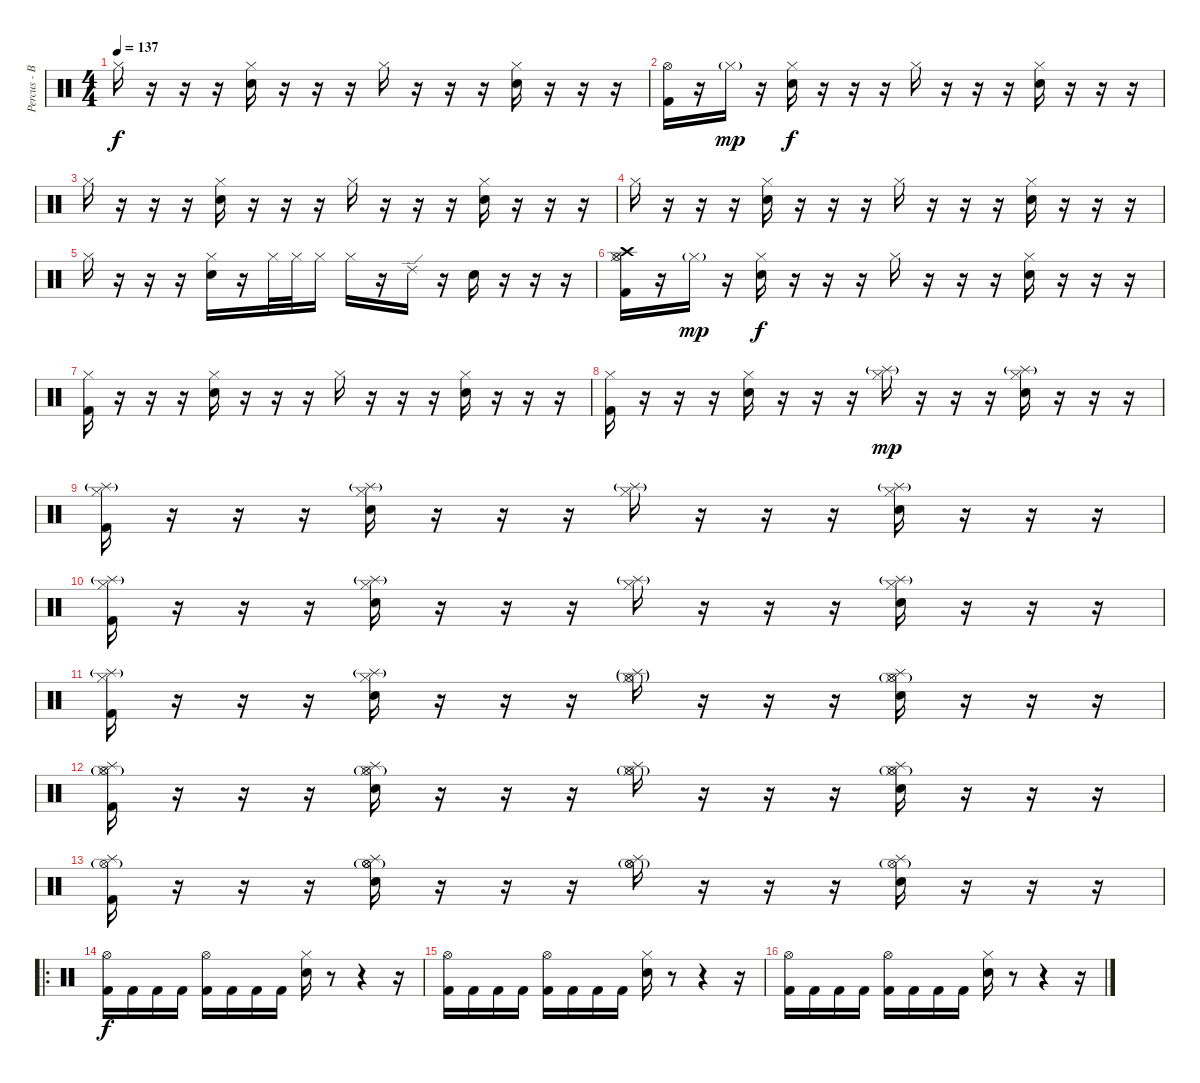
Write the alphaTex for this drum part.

\track ("Percus - Brice" "Percus - B") {instrument percussion}
\staff {score}
\articulation defaults
\ts (4 4)
\tempo 137
\clef neutral
\ks c "Hi-Hat (closed)".16{dy f}
r.16 r.16 r.16 ("Hi-Hat (closed)" "Electric Snare (hit)").16 r.16 r.16 r.16 "Hi-Hat (closed)".16 r.16 r.16 r.16 ("Hi-Hat (closed)" "Electric Snare (hit)").16 r.16 r.16 r.16 |
("Hi-Hat (open)" "Kick (hit) 2").16 r.16 "Hi-Hat (closed)"{g}.16{dy mp} r.16 ("Hi-Hat (closed)" "Electric Snare (hit)").16{dy f} r.16 r.16 r.16 "Hi-Hat (closed)".16 r.16 r.16 r.16 ("Hi-Hat (closed)" "Electric Snare (hit)").16 r.16 r.16 r.16 |
"Hi-Hat (closed)".16 r.16 r.16 r.16 ("Hi-Hat (closed)" "Electric Snare (hit)").16 r.16 r.16 r.16 "Hi-Hat (closed)".16 r.16 r.16 r.16 ("Hi-Hat (closed)" "Electric Snare (hit)").16 r.16 r.16 r.16 |
"Hi-Hat (closed)".16 r.16 r.16 r.16 ("Hi-Hat (closed)" "Electric Snare (hit)").16 r.16 r.16 r.16 "Hi-Hat (closed)".16 r.16 r.16 r.16 ("Hi-Hat (closed)" "Electric Snare (hit)").16 r.16 r.16 r.16 |
"Hi-Hat (closed)".16 r.16 r.16 r.16 ("Hi-Hat (closed)" "Electric Snare (hit)").16 r.16 "Hi-Hat (closed)".32 "Hi-Hat (closed)".32 "Hi-Hat (closed)".16 "Hi-Hat (closed)".16 r.16 "Ride (edge) 2".16 r.16 "Electric Snare (hit)".16 r.16 r.16 r.16 |
("Crash high (hit)" "Hi-Hat (open)" "Hi-Hat (closed)" "Kick (hit) 2").16 r.16 "Hi-Hat (closed)"{g}.16{dy mp} r.16 ("Hi-Hat (closed)" "Electric Snare (hit)").16{dy f} r.16 r.16 r.16 "Hi-Hat (closed)".16 r.16 r.16 r.16 ("Hi-Hat (closed)" "Electric Snare (hit)").16 r.16 r.16 r.16 |
("Hi-Hat (closed)" "Kick (hit) 2").16 r.16 r.16 r.16 ("Hi-Hat (closed)" "Electric Snare (hit)").16 r.16 r.16 r.16 "Hi-Hat (closed)".16 r.16 r.16 r.16 ("Hi-Hat (closed)" "Electric Snare (hit)").16 r.16 r.16 r.16 |
("Hi-Hat (closed)" "Kick (hit) 2").16 r.16 r.16 r.16 ("Hi-Hat (closed)" "Electric Snare (hit)").16 r.16 r.16 r.16 ("Splash (hit)"{g} "Hi-Hat (closed)").16{dy mp} r.16 r.16 r.16 ("Splash (hit)"{g} "Hi-Hat (closed)" "Electric Snare (hit)").16 r.16 r.16 r.16 |
("Splash (hit)"{g} "Hi-Hat (closed)" "Kick (hit) 2").16 r.16 r.16 r.16 ("Splash (hit)"{g} "Hi-Hat (closed)" "Electric Snare (hit)").16 r.16 r.16 r.16 ("Splash (hit)"{g} "Hi-Hat (closed)").16 r.16 r.16 r.16 ("Splash (hit)"{g} "Hi-Hat (closed)" "Electric Snare (hit)").16 r.16 r.16 r.16 |
("Splash (hit)"{g} "Hi-Hat (closed)" "Kick (hit) 2").16 r.16 r.16 r.16 ("Splash (hit)"{g} "Hi-Hat (closed)" "Electric Snare (hit)").16 r.16 r.16 r.16 ("Splash (hit)"{g} "Hi-Hat (closed)").16 r.16 r.16 r.16 ("Splash (hit)"{g} "Hi-Hat (closed)" "Electric Snare (hit)").16 r.16 r.16 r.16 |
("Splash (hit)"{g} "Hi-Hat (closed)" "Kick (hit) 2").16 r.16 r.16 r.16 ("Splash (hit)"{g} "Hi-Hat (closed)" "Electric Snare (hit)").16 r.16 r.16 r.16 ("Hi-Hat (open)"{g} "Splash (hit)"{g} "Hi-Hat (closed)").16 r.16 r.16 r.16 ("Hi-Hat (open)"{g} "Splash (hit)" "Hi-Hat (closed)" "Electric Snare (hit)").16 r.16 r.16 r.16 |
("Hi-Hat (open)"{g} "Splash (hit)" "Hi-Hat (closed)" "Kick (hit) 2").16 r.16 r.16 r.16 ("Hi-Hat (open)"{g} "Splash (hit)" "Hi-Hat (closed)" "Electric Snare (hit)").16 r.16 r.16 r.16 ("Hi-Hat (open)"{g} "Splash (hit)" "Hi-Hat (closed)").16 r.16 r.16 r.16 ("Hi-Hat (open)"{g} "Splash (hit)" "Hi-Hat (closed)" "Electric Snare (hit)").16 r.16 r.16 r.16 |
("Hi-Hat (open)"{g} "Splash (hit)" "Kick (hit) 2").16 r.16 r.16 r.16 ("Hi-Hat (open)" "Hi-Hat (open)"{g} "Splash (hit)" "Electric Snare (hit)").16 r.16 r.16 r.16 ("Hi-Hat (open)" "Hi-Hat (open)"{g} "Splash (hit)").16 r.16 r.16 r.16 ("Hi-Hat (open)"{g} "Splash (hit)" "Electric Snare (hit)").16 r.16 r.16 r.16 |
\ro
("Hi-Hat (open)" "Kick (hit) 2").16{dy f} "Kick (hit) 2".16 "Kick (hit) 2".16 "Kick (hit) 2".16 ("Hi-Hat (open)" "Kick (hit) 2").16 "Kick (hit) 2".16 "Kick (hit) 2".16 "Kick (hit) 2".16 ("Hi-Hat (closed)" "Electric Snare (hit)").16 r.8 r.4 r.16 |
("Hi-Hat (open)" "Kick (hit) 2").16 "Kick (hit) 2".16 "Kick (hit) 2".16 "Kick (hit) 2".16 ("Hi-Hat (open)" "Kick (hit) 2").16 "Kick (hit) 2".16 "Kick (hit) 2".16 "Kick (hit) 2".16 ("Hi-Hat (closed)" "Electric Snare (hit)").16 r.8 r.4 r.16 |
("Hi-Hat (open)" "Kick (hit) 2").16 "Kick (hit) 2".16 "Kick (hit) 2".16 "Kick (hit) 2".16 ("Hi-Hat (open)" "Kick (hit) 2").16 "Kick (hit) 2".16 "Kick (hit) 2".16 "Kick (hit) 2".16 ("Hi-Hat (closed)" "Electric Snare (hit)").16 r.8 r.4 r.16
